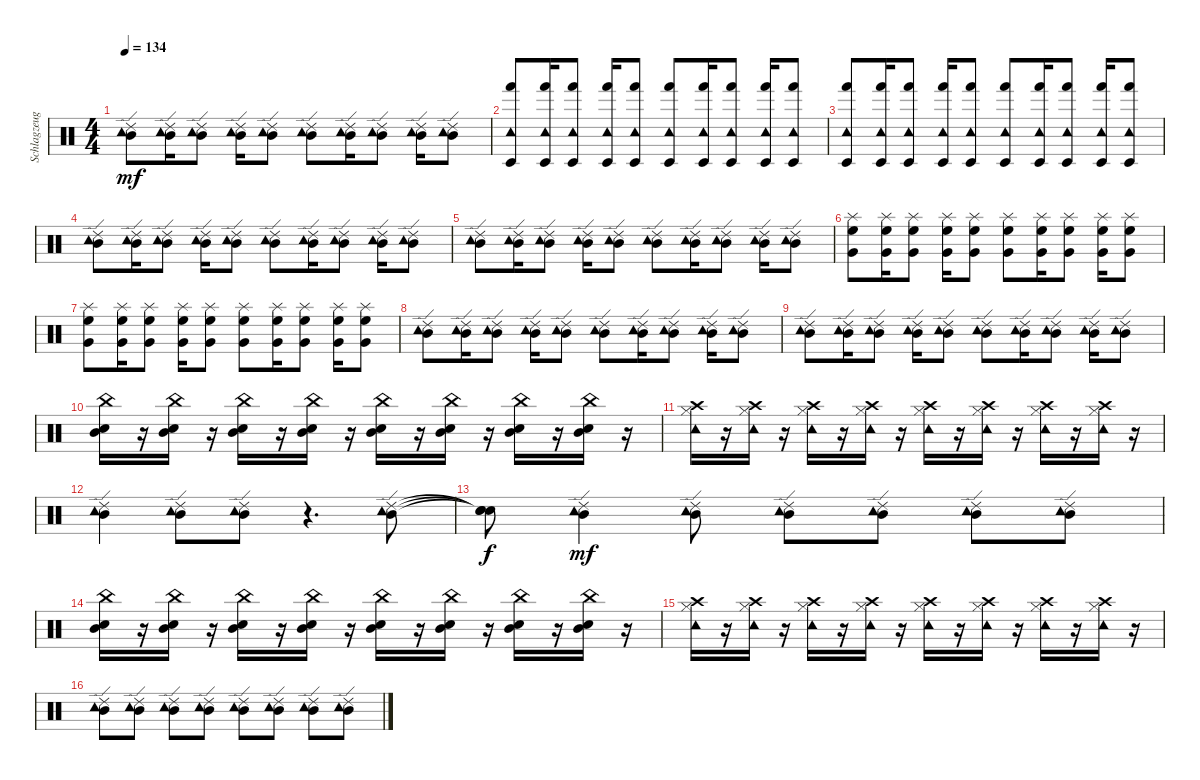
\track ("Schlagzeug - Bela B." "Schlagzeug") {instrument percussion}
\staff {score}
\articulation defaults
\ts (4 4)
\tempo 134
\clef neutral
\ks c
("Mid Tom (hit)" "Tambourine (hit)" "Ride (edge) 2").8{dy mf} ("Mid Tom (hit)" "Tambourine (hit)" "Ride (edge) 2").16 ("Mid Tom (hit)" "Tambourine (hit)" "Ride (edge) 2").8 ("Mid Tom (hit)" "Tambourine (hit)" "Ride (edge) 2").16 ("Mid Tom (hit)" "Tambourine (hit)" "Ride (edge) 2").8 ("Mid Tom (hit)" "Tambourine (hit)" "Ride (edge) 2").8 ("Mid Tom (hit)" "Tambourine (hit)" "Ride (edge) 2").16 ("Mid Tom (hit)" "Tambourine (hit)" "Ride (edge) 2").8 ("Mid Tom (hit)" "Tambourine (hit)" "Ride (edge) 2").16 ("Mid Tom (hit)" "Tambourine (hit)" "Ride (edge) 2").8 |
("Tambourine (hit)" "Hand (hit)" "Timbale low (hit)").8 ("Tambourine (hit)" "Hand (hit)" "Timbale low (hit)").16 ("Tambourine (hit)" "Hand (hit)" "Timbale low (hit)").8 ("Tambourine (hit)" "Hand (hit)" "Timbale low (hit)").16 ("Tambourine (hit)" "Hand (hit)" "Timbale low (hit)").8 ("Tambourine (hit)" "Hand (hit)" "Timbale low (hit)").8 ("Tambourine (hit)" "Hand (hit)" "Timbale low (hit)").16 ("Tambourine (hit)" "Hand (hit)" "Timbale low (hit)").8 ("Tambourine (hit)" "Hand (hit)" "Timbale low (hit)").16 ("Tambourine (hit)" "Hand (hit)" "Timbale low (hit)").8 |
("Tambourine (hit)" "Hand (hit)" "Timbale low (hit)").8 ("Tambourine (hit)" "Hand (hit)" "Timbale low (hit)").16 ("Tambourine (hit)" "Hand (hit)" "Timbale low (hit)").8 ("Tambourine (hit)" "Hand (hit)" "Timbale low (hit)").16 ("Tambourine (hit)" "Hand (hit)" "Timbale low (hit)").8 ("Tambourine (hit)" "Hand (hit)" "Timbale low (hit)").8 ("Tambourine (hit)" "Hand (hit)" "Timbale low (hit)").16 ("Tambourine (hit)" "Hand (hit)" "Timbale low (hit)").8 ("Tambourine (hit)" "Hand (hit)" "Timbale low (hit)").16 ("Tambourine (hit)" "Hand (hit)" "Timbale low (hit)").8 |
("Mid Tom (hit)" "Tambourine (hit)" "Ride (edge) 2").8 ("Mid Tom (hit)" "Tambourine (hit)" "Ride (edge) 2").16 ("Mid Tom (hit)" "Tambourine (hit)" "Ride (edge) 2").8 ("Mid Tom (hit)" "Tambourine (hit)" "Ride (edge) 2").16 ("Mid Tom (hit)" "Tambourine (hit)" "Ride (edge) 2").8 ("Mid Tom (hit)" "Tambourine (hit)" "Ride (edge) 2").8 ("Mid Tom (hit)" "Tambourine (hit)" "Ride (edge) 2").16 ("Mid Tom (hit)" "Tambourine (hit)" "Ride (edge) 2").8 ("Mid Tom (hit)" "Tambourine (hit)" "Ride (edge) 2").16 ("Mid Tom (hit)" "Tambourine (hit)" "Ride (edge) 2").8 |
("Mid Tom (hit)" "Tambourine (hit)" "Ride (edge) 2").8 ("Mid Tom (hit)" "Tambourine (hit)" "Ride (edge) 2").16 ("Mid Tom (hit)" "Tambourine (hit)" "Ride (edge) 2").8 ("Mid Tom (hit)" "Tambourine (hit)" "Ride (edge) 2").16 ("Mid Tom (hit)" "Tambourine (hit)" "Ride (edge) 2").8 ("Mid Tom (hit)" "Tambourine (hit)" "Ride (edge) 2").8 ("Mid Tom (hit)" "Tambourine (hit)" "Ride (edge) 2").16 ("Mid Tom (hit)" "Tambourine (hit)" "Ride (edge) 2").8 ("Mid Tom (hit)" "Tambourine (hit)" "Ride (edge) 2").16 ("Mid Tom (hit)" "Tambourine (hit)" "Ride (edge) 2").8 |
("Very Low Tom (hit)" "High Floor Tom (hit)" "Splash (hit)").8 ("Very Low Tom (hit)" "High Floor Tom (hit)" "Splash (hit)").16 ("Very Low Tom (hit)" "High Floor Tom (hit)" "Splash (hit)").8 ("Very Low Tom (hit)" "High Floor Tom (hit)" "Splash (hit)").16 ("Very Low Tom (hit)" "High Floor Tom (hit)" "Splash (hit)").8 ("Very Low Tom (hit)" "High Floor Tom (hit)" "Splash (hit)").8 ("Very Low Tom (hit)" "High Floor Tom (hit)" "Splash (hit)").16 ("Very Low Tom (hit)" "High Floor Tom (hit)" "Splash (hit)").8 ("Very Low Tom (hit)" "High Floor Tom (hit)" "Splash (hit)").16 ("Very Low Tom (hit)" "High Floor Tom (hit)" "Splash (hit)").8 |
("Very Low Tom (hit)" "High Floor Tom (hit)" "Splash (hit)").8 ("Very Low Tom (hit)" "High Floor Tom (hit)" "Splash (hit)").16 ("Very Low Tom (hit)" "High Floor Tom (hit)" "Splash (hit)").8 ("Very Low Tom (hit)" "High Floor Tom (hit)" "Splash (hit)").16 ("Very Low Tom (hit)" "High Floor Tom (hit)" "Splash (hit)").8 ("Very Low Tom (hit)" "High Floor Tom (hit)" "Splash (hit)").8 ("Very Low Tom (hit)" "High Floor Tom (hit)" "Splash (hit)").16 ("Very Low Tom (hit)" "High Floor Tom (hit)" "Splash (hit)").8 ("Very Low Tom (hit)" "High Floor Tom (hit)" "Splash (hit)").16 ("Very Low Tom (hit)" "High Floor Tom (hit)" "Splash (hit)").8 |
("Mid Tom (hit)" "Tambourine (hit)" "Ride (edge) 2").8 ("Mid Tom (hit)" "Tambourine (hit)" "Ride (edge) 2").16 ("Mid Tom (hit)" "Tambourine (hit)" "Ride (edge) 2").8 ("Mid Tom (hit)" "Tambourine (hit)" "Ride (edge) 2").16 ("Mid Tom (hit)" "Tambourine (hit)" "Ride (edge) 2").8 ("Mid Tom (hit)" "Tambourine (hit)" "Ride (edge) 2").8 ("Mid Tom (hit)" "Tambourine (hit)" "Ride (edge) 2").16 ("Mid Tom (hit)" "Tambourine (hit)" "Ride (edge) 2").8 ("Mid Tom (hit)" "Tambourine (hit)" "Ride (edge) 2").16 ("Mid Tom (hit)" "Tambourine (hit)" "Ride (edge) 2").8 |
("Mid Tom (hit)" "Tambourine (hit)" "Ride (edge) 2").8 ("Mid Tom (hit)" "Tambourine (hit)" "Ride (edge) 2").16 ("Mid Tom (hit)" "Tambourine (hit)" "Ride (edge) 2").8 ("Mid Tom (hit)" "Tambourine (hit)" "Ride (edge) 2").16 ("Mid Tom (hit)" "Tambourine (hit)" "Ride (edge) 2").8 ("Mid Tom (hit)" "Tambourine (hit)" "Ride (edge) 2").8 ("Mid Tom (hit)" "Tambourine (hit)" "Ride (edge) 2").16 ("Mid Tom (hit)" "Tambourine (hit)" "Ride (edge) 2").8 ("Mid Tom (hit)" "Tambourine (hit)" "Ride (edge) 2").16 ("Mid Tom (hit)" "Tambourine (hit)" "Ride (edge) 2").8 |
("Electric Snare (hit)" "Mid Tom (hit)" "China (hit)").16 r.16 ("Electric Snare (hit)" "Mid Tom (hit)" "China (hit)").16 r.16 ("Electric Snare (hit)" "Mid Tom (hit)" "China (hit)").16 r.16 ("Electric Snare (hit)" "Mid Tom (hit)" "China (hit)").16 r.16 ("Electric Snare (hit)" "Mid Tom (hit)" "China (hit)").16 r.16 ("Electric Snare (hit)" "Mid Tom (hit)" "China (hit)").16 r.16 ("Electric Snare (hit)" "Mid Tom (hit)" "China (hit)").16 r.16 ("Electric Snare (hit)" "Mid Tom (hit)" "China (hit)").16 r.16 |
("Hi-Hat (closed)" "Crash high (hit)" "Tambourine (hit)").16 r.16 ("Hi-Hat (closed)" "Crash high (hit)" "Tambourine (hit)").16 r.16 ("Hi-Hat (closed)" "Crash high (hit)" "Tambourine (hit)").16 r.16 ("Hi-Hat (closed)" "Crash high (hit)" "Tambourine (hit)").16 r.16 ("Hi-Hat (closed)" "Crash high (hit)" "Tambourine (hit)").16 r.16 ("Hi-Hat (closed)" "Crash high (hit)" "Tambourine (hit)").16 r.16 ("Hi-Hat (closed)" "Crash high (hit)" "Tambourine (hit)").16 r.16 ("Hi-Hat (closed)" "Crash high (hit)" "Tambourine (hit)").16 r.16 |
("Mid Tom (hit)" "Tambourine (hit)" "Ride (edge) 2").4 ("Mid Tom (hit)" "Tambourine (hit)" "Ride (edge) 2").8 ("Mid Tom (hit)" "Tambourine (hit)" "Ride (edge) 2").8 r.4{d} ("Mid Tom (hit)" "Ride (edge) 2" "Tambourine (hit)").8 |
("Snare (hit)"{t} "Snare (hit)"{t} "Snare (hit)"{t}).8{dy f} ("Mid Tom (hit)" "Ride (edge) 2" "Tambourine (hit)").4{dy mf} ("Mid Tom (hit)" "Tambourine (hit)" "Ride (edge) 2").8 ("Mid Tom (hit)" "Tambourine (hit)" "Ride (edge) 2").8 ("Mid Tom (hit)" "Tambourine (hit)" "Ride (edge) 2").8 ("Mid Tom (hit)" "Tambourine (hit)" "Ride (edge) 2").8 ("Mid Tom (hit)" "Tambourine (hit)" "Ride (edge) 2").8 |
("Electric Snare (hit)" "Mid Tom (hit)" "China (hit)").16 r.16 ("Electric Snare (hit)" "Mid Tom (hit)" "China (hit)").16 r.16 ("Electric Snare (hit)" "Mid Tom (hit)" "China (hit)").16 r.16 ("Electric Snare (hit)" "Mid Tom (hit)" "China (hit)").16 r.16 ("Electric Snare (hit)" "Mid Tom (hit)" "China (hit)").16 r.16 ("Electric Snare (hit)" "Mid Tom (hit)" "China (hit)").16 r.16 ("Electric Snare (hit)" "Mid Tom (hit)" "China (hit)").16 r.16 ("Electric Snare (hit)" "Mid Tom (hit)" "China (hit)").16 r.16 |
("Hi-Hat (closed)" "Crash high (hit)" "Tambourine (hit)").16 r.16 ("Hi-Hat (closed)" "Crash high (hit)" "Tambourine (hit)").16 r.16 ("Hi-Hat (closed)" "Crash high (hit)" "Tambourine (hit)").16 r.16 ("Hi-Hat (closed)" "Crash high (hit)" "Tambourine (hit)").16 r.16 ("Hi-Hat (closed)" "Crash high (hit)" "Tambourine (hit)").16 r.16 ("Hi-Hat (closed)" "Crash high (hit)" "Tambourine (hit)").16 r.16 ("Hi-Hat (closed)" "Crash high (hit)" "Tambourine (hit)").16 r.16 ("Hi-Hat (closed)" "Crash high (hit)" "Tambourine (hit)").16 r.16 |
("Mid Tom (hit)" "Tambourine (hit)" "Ride (edge) 2").8 ("Mid Tom (hit)" "Tambourine (hit)" "Ride (edge) 2").8 ("Mid Tom (hit)" "Tambourine (hit)" "Ride (edge) 2").8 ("Mid Tom (hit)" "Tambourine (hit)" "Ride (edge) 2").8 ("Mid Tom (hit)" "Tambourine (hit)" "Ride (edge) 2").8 ("Mid Tom (hit)" "Tambourine (hit)" "Ride (edge) 2").8 ("Mid Tom (hit)" "Tambourine (hit)" "Ride (edge) 2").8 ("Mid Tom (hit)" "Tambourine (hit)" "Ride (edge) 2").8
